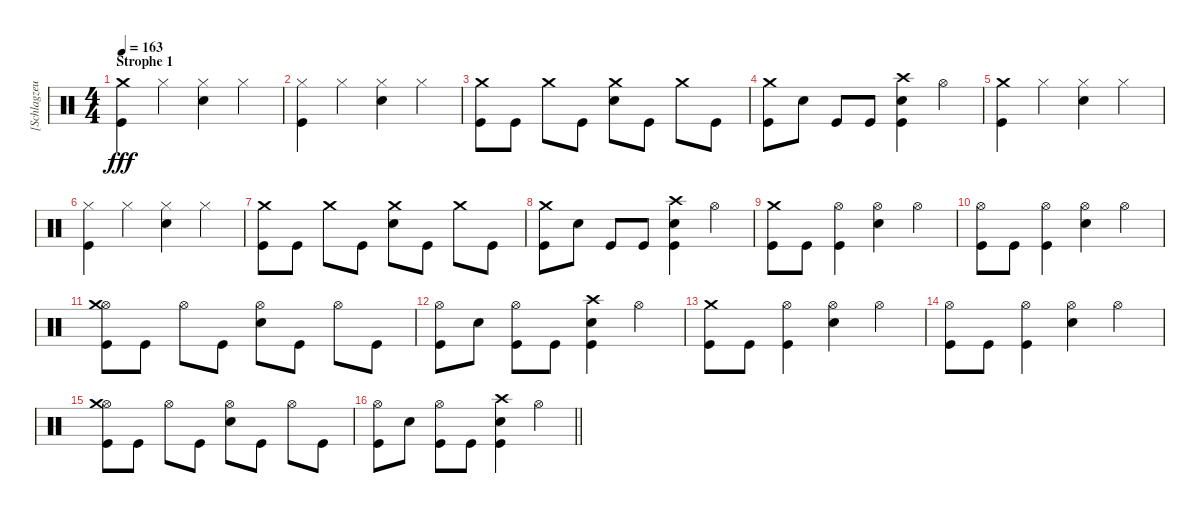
\track ("[Schlagzeug]" "[Schlagzeu") {instrument percussion}
\staff {score}
\articulation defaults
\ts (4 4)
\section ("" "Strophe 1")
\tempo 163
\clef neutral
\ks c
("Crash medium (hit)" "Kick (hit)").4{dy fff} "Hi-Hat (closed)".4 ("Hi-Hat (closed)" "Electric Snare (hit)").4 "Hi-Hat (closed)".4 |
("Hi-Hat (closed)" "Kick (hit)").4 "Hi-Hat (closed)".4 ("Hi-Hat (closed)" "Electric Snare (hit)").4 "Hi-Hat (closed)".4 |
("Crash medium (hit)" "Kick (hit)").8 "Kick (hit)".8 "Crash medium (hit)".8 "Kick (hit)".8 ("Crash medium (hit)" "Electric Snare (hit)").8 "Kick (hit)".8 "Crash medium (hit)".8 "Kick (hit)".8 |
("Crash medium (hit)" "Kick (hit)").8 "Electric Snare (hit)".8 "Kick (hit)".8 "Kick (hit)".8 ("Kick (hit)" "Electric Snare (hit)" "Crash high (hit)").4 "Hi-Hat (open)".4 |
("Crash medium (hit)" "Kick (hit)").4 "Hi-Hat (closed)".4 ("Hi-Hat (closed)" "Electric Snare (hit)").4 "Hi-Hat (closed)".4 |
("Hi-Hat (closed)" "Kick (hit)").4 "Hi-Hat (closed)".4 ("Hi-Hat (closed)" "Electric Snare (hit)").4 "Hi-Hat (closed)".4 |
("Crash medium (hit)" "Kick (hit)").8 "Kick (hit)".8 "Crash medium (hit)".8 "Kick (hit)".8 ("Crash medium (hit)" "Electric Snare (hit)").8 "Kick (hit)".8 "Crash medium (hit)".8 "Kick (hit)".8 |
("Crash medium (hit)" "Kick (hit)").8 "Electric Snare (hit)".8 "Kick (hit)".8 "Kick (hit)".8 ("Kick (hit)" "Electric Snare (hit)" "Crash high (hit)").4 "Hi-Hat (open)".4 |
("Crash medium (hit)" "Kick (hit)").8 "Kick (hit)".8 ("Hi-Hat (open)" "Kick (hit)").4 ("Hi-Hat (open)" "Electric Snare (hit)").4 "Hi-Hat (open)".4 |
("Hi-Hat (open)" "Kick (hit)").8 "Kick (hit)".8 ("Hi-Hat (open)" "Kick (hit)").4 ("Hi-Hat (open)" "Electric Snare (hit)").4 "Hi-Hat (open)".4 |
("Hi-Hat (open)" "Crash medium (hit)" "Kick (hit)").8 "Kick (hit)".8 "Hi-Hat (open)".8 "Kick (hit)".8 ("Hi-Hat (open)" "Electric Snare (hit)").8 "Kick (hit)".8 "Hi-Hat (open)".8 "Kick (hit)".8 |
("Hi-Hat (open)" "Kick (hit)").8 "Electric Snare (hit)".8 ("Hi-Hat (open)" "Kick (hit)").8 "Kick (hit)".8 ("Kick (hit)" "Electric Snare (hit)" "Crash high (hit)").4 "Hi-Hat (open)".4 |
("Crash medium (hit)" "Kick (hit)").8 "Kick (hit)".8 ("Hi-Hat (open)" "Kick (hit)").4 ("Hi-Hat (open)" "Electric Snare (hit)").4 "Hi-Hat (open)".4 |
("Hi-Hat (open)" "Kick (hit)").8 "Kick (hit)".8 ("Hi-Hat (open)" "Kick (hit)").4 ("Hi-Hat (open)" "Electric Snare (hit)").4 "Hi-Hat (open)".4 |
("Hi-Hat (open)" "Crash medium (hit)" "Kick (hit)").8 "Kick (hit)".8 "Hi-Hat (open)".8 "Kick (hit)".8 ("Hi-Hat (open)" "Electric Snare (hit)").8 "Kick (hit)".8 "Hi-Hat (open)".8 "Kick (hit)".8 |
\barLineRight lightlight
("Hi-Hat (open)" "Kick (hit)").8 "Electric Snare (hit)".8 ("Hi-Hat (open)" "Kick (hit)").8 "Kick (hit)".8 ("Kick (hit)" "Electric Snare (hit)" "Crash high (hit)").4 "Hi-Hat (open)".4
